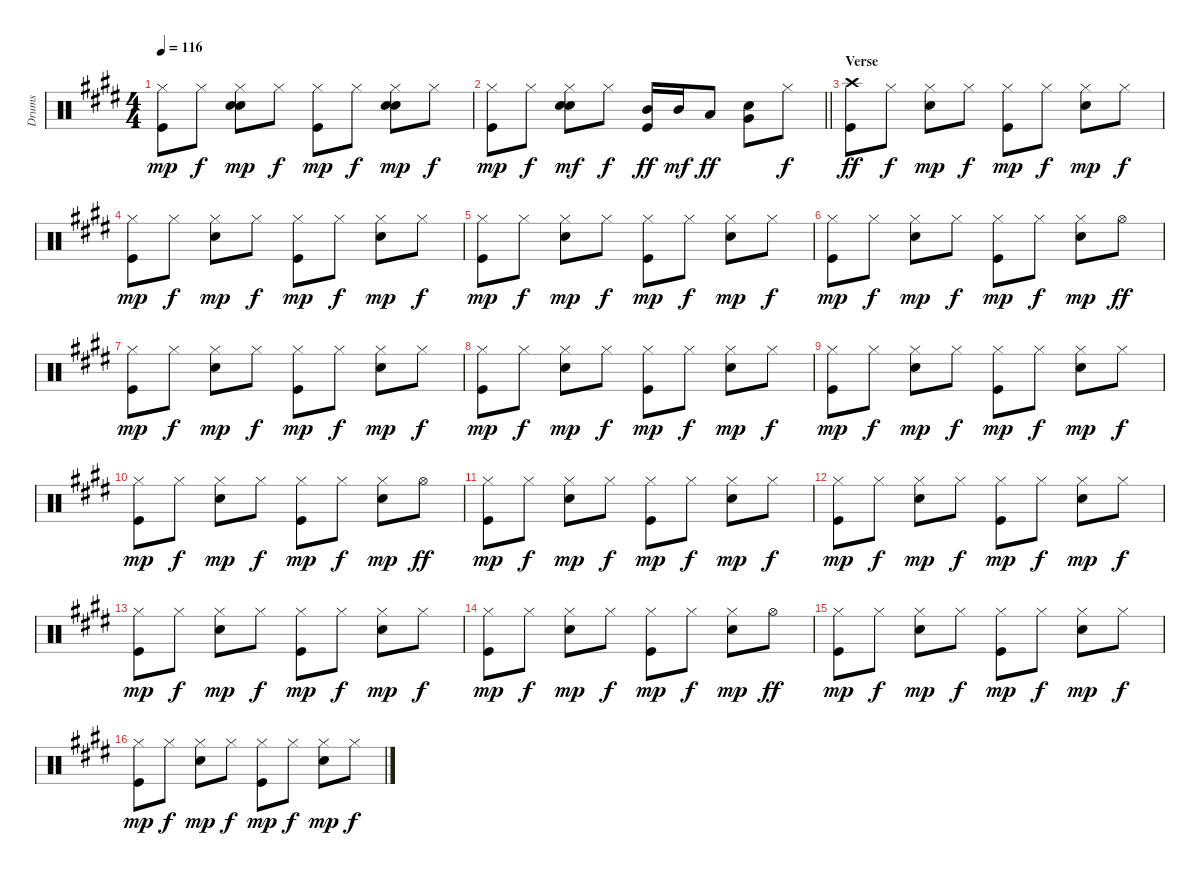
\track ("Drums" "Drums") {instrument percussion}
\staff {score}
\articulation defaults
\ts (4 4)
\tempo 116
\clef neutral
\ks e
("Kick (hit)" "Hi-Hat (closed)").8{dy mp} "Hi-Hat (closed)".8{dy f} ("Hand Clap (hit)" "Electric Snare (hit)" "Hi-Hat (closed)").8{dy mp} "Hi-Hat (closed)".8{dy f} ("Kick (hit)" "Hi-Hat (closed)").8{dy mp} "Hi-Hat (closed)".8{dy f} ("Hand Clap (hit)" "Electric Snare (hit)" "Hi-Hat (closed)").8{dy mp} "Hi-Hat (closed)".8{dy f} |
\barLineRight lightlight
("Kick (hit)" "Hi-Hat (closed)").8{dy mp} "Hi-Hat (closed)".8{dy f} ("Hand Clap (hit)" "Electric Snare (hit)" "Hi-Hat (closed)").8{dy mf} "Hi-Hat (closed)".8{dy f} ("Kick (hit)" "Mid Tom (hit)").16{dy ff} "Mid Tom (hit)".16{dy mf} "Low Tom (hit)".8{dy ff} ("Hand Clap (hit)" "Very Low Tom (hit)").8 "Hi-Hat (closed)".8{dy f} |
\section ("" "Verse")
("Kick (hit)" "Crash high (hit)").8{dy ff} "Hi-Hat (closed)".8{dy f} ("Electric Snare (hit)" "Hi-Hat (closed)").8{dy mp} "Hi-Hat (closed)".8{dy f} ("Kick (hit)" "Hi-Hat (closed)").8{dy mp} "Hi-Hat (closed)".8{dy f} ("Electric Snare (hit)" "Hi-Hat (closed)").8{dy mp} "Hi-Hat (closed)".8{dy f} |
("Kick (hit)" "Hi-Hat (closed)").8{dy mp} "Hi-Hat (closed)".8{dy f} ("Electric Snare (hit)" "Hi-Hat (closed)").8{dy mp} "Hi-Hat (closed)".8{dy f} ("Kick (hit)" "Hi-Hat (closed)").8{dy mp} "Hi-Hat (closed)".8{dy f} ("Electric Snare (hit)" "Hi-Hat (closed)").8{dy mp} "Hi-Hat (closed)".8{dy f} |
("Kick (hit)" "Hi-Hat (closed)").8{dy mp} "Hi-Hat (closed)".8{dy f} ("Electric Snare (hit)" "Hi-Hat (closed)").8{dy mp} "Hi-Hat (closed)".8{dy f} ("Kick (hit)" "Hi-Hat (closed)").8{dy mp} "Hi-Hat (closed)".8{dy f} ("Electric Snare (hit)" "Hi-Hat (closed)").8{dy mp} "Hi-Hat (closed)".8{dy f} |
("Kick (hit)" "Hi-Hat (closed)").8{dy mp} "Hi-Hat (closed)".8{dy f} ("Electric Snare (hit)" "Hi-Hat (closed)").8{dy mp} "Hi-Hat (closed)".8{dy f} ("Kick (hit)" "Hi-Hat (closed)").8{dy mp} "Hi-Hat (closed)".8{dy f} ("Electric Snare (hit)" "Hi-Hat (closed)").8{dy mp} "Hi-Hat (open)".8{dy ff} |
("Kick (hit)" "Hi-Hat (closed)").8{dy mp} "Hi-Hat (closed)".8{dy f} ("Electric Snare (hit)" "Hi-Hat (closed)").8{dy mp} "Hi-Hat (closed)".8{dy f} ("Kick (hit)" "Hi-Hat (closed)").8{dy mp} "Hi-Hat (closed)".8{dy f} ("Electric Snare (hit)" "Hi-Hat (closed)").8{dy mp} "Hi-Hat (closed)".8{dy f} |
("Kick (hit)" "Hi-Hat (closed)").8{dy mp} "Hi-Hat (closed)".8{dy f} ("Electric Snare (hit)" "Hi-Hat (closed)").8{dy mp} "Hi-Hat (closed)".8{dy f} ("Kick (hit)" "Hi-Hat (closed)").8{dy mp} "Hi-Hat (closed)".8{dy f} ("Electric Snare (hit)" "Hi-Hat (closed)").8{dy mp} "Hi-Hat (closed)".8{dy f} |
("Kick (hit)" "Hi-Hat (closed)").8{dy mp} "Hi-Hat (closed)".8{dy f} ("Electric Snare (hit)" "Hi-Hat (closed)").8{dy mp} "Hi-Hat (closed)".8{dy f} ("Kick (hit)" "Hi-Hat (closed)").8{dy mp} "Hi-Hat (closed)".8{dy f} ("Electric Snare (hit)" "Hi-Hat (closed)").8{dy mp} "Hi-Hat (closed)".8{dy f} |
("Kick (hit)" "Hi-Hat (closed)").8{dy mp} "Hi-Hat (closed)".8{dy f} ("Electric Snare (hit)" "Hi-Hat (closed)").8{dy mp} "Hi-Hat (closed)".8{dy f} ("Kick (hit)" "Hi-Hat (closed)").8{dy mp} "Hi-Hat (closed)".8{dy f} ("Electric Snare (hit)" "Hi-Hat (closed)").8{dy mp} "Hi-Hat (open)".8{dy ff} |
("Kick (hit)" "Hi-Hat (closed)").8{dy mp} "Hi-Hat (closed)".8{dy f} ("Electric Snare (hit)" "Hi-Hat (closed)").8{dy mp} "Hi-Hat (closed)".8{dy f} ("Kick (hit)" "Hi-Hat (closed)").8{dy mp} "Hi-Hat (closed)".8{dy f} ("Electric Snare (hit)" "Hi-Hat (closed)").8{dy mp} "Hi-Hat (closed)".8{dy f} |
("Kick (hit)" "Hi-Hat (closed)").8{dy mp} "Hi-Hat (closed)".8{dy f} ("Electric Snare (hit)" "Hi-Hat (closed)").8{dy mp} "Hi-Hat (closed)".8{dy f} ("Kick (hit)" "Hi-Hat (closed)").8{dy mp} "Hi-Hat (closed)".8{dy f} ("Electric Snare (hit)" "Hi-Hat (closed)").8{dy mp} "Hi-Hat (closed)".8{dy f} |
("Kick (hit)" "Hi-Hat (closed)").8{dy mp} "Hi-Hat (closed)".8{dy f} ("Electric Snare (hit)" "Hi-Hat (closed)").8{dy mp} "Hi-Hat (closed)".8{dy f} ("Kick (hit)" "Hi-Hat (closed)").8{dy mp} "Hi-Hat (closed)".8{dy f} ("Electric Snare (hit)" "Hi-Hat (closed)").8{dy mp} "Hi-Hat (closed)".8{dy f} |
("Kick (hit)" "Hi-Hat (closed)").8{dy mp} "Hi-Hat (closed)".8{dy f} ("Electric Snare (hit)" "Hi-Hat (closed)").8{dy mp} "Hi-Hat (closed)".8{dy f} ("Kick (hit)" "Hi-Hat (closed)").8{dy mp} "Hi-Hat (closed)".8{dy f} ("Electric Snare (hit)" "Hi-Hat (closed)").8{dy mp} "Hi-Hat (open)".8{dy ff} |
("Kick (hit)" "Hi-Hat (closed)").8{dy mp} "Hi-Hat (closed)".8{dy f} ("Electric Snare (hit)" "Hi-Hat (closed)").8{dy mp} "Hi-Hat (closed)".8{dy f} ("Kick (hit)" "Hi-Hat (closed)").8{dy mp} "Hi-Hat (closed)".8{dy f} ("Electric Snare (hit)" "Hi-Hat (closed)").8{dy mp} "Hi-Hat (closed)".8{dy f} |
("Kick (hit)" "Hi-Hat (closed)").8{dy mp} "Hi-Hat (closed)".8{dy f} ("Electric Snare (hit)" "Hi-Hat (closed)").8{dy mp} "Hi-Hat (closed)".8{dy f} ("Kick (hit)" "Hi-Hat (closed)").8{dy mp} "Hi-Hat (closed)".8{dy f} ("Electric Snare (hit)" "Hi-Hat (closed)").8{dy mp} "Hi-Hat (closed)".8{dy f}
